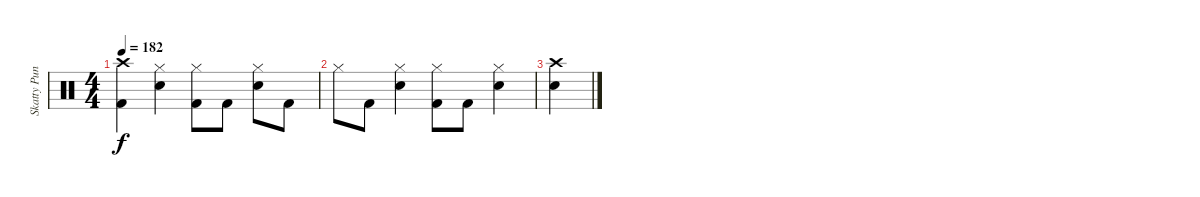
\track ("Skatty Punk Rock" "Skatty Pun") {instrument percussion}
\staff {score}
\articulation defaults
\ts (4 4)
\tempo 182
\clef neutral
\ks c
("Kick (hit) 2" "Crash high (hit)").4{dy f} ("Snare (hit) 2" "Hi-Hat (closed)").4 ("Kick (hit) 2" "Hi-Hat (closed)").8 "Kick (hit) 2".8 ("Snare (hit) 2" "Hi-Hat (closed)").8 "Kick (hit) 2".8 |
"Hi-Hat (closed)".8 "Kick (hit) 2".8 ("Snare (hit) 2" "Hi-Hat (closed)").4 ("Kick (hit) 2" "Hi-Hat (closed)").8 "Kick (hit) 2".8 ("Snare (hit) 2" "Hi-Hat (closed)").4 |
("Crash high (hit)" "Snare (hit) 2").4
